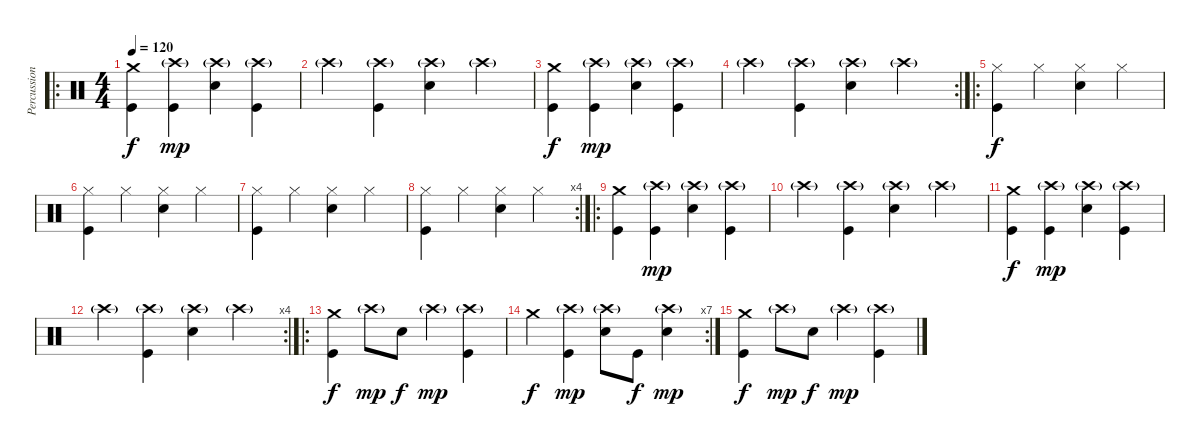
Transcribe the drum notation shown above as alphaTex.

\track ("Percussion" "Percussion") {instrument percussion}
\staff {score}
\articulation defaults
\ro
\ts (4 4)
\tempo 120
\clef neutral
\ks c
("Crash medium (hit)" "Kick (hit)").4{dy f} ("Crash high (hit)"{g} "Kick (hit)").4{dy mp} ("Crash high (hit)"{g} "Snare (hit) 2").4 ("Crash high (hit)"{g} "Kick (hit)").4 |
"Crash high (hit)"{g}.4 ("Crash high (hit)"{g} "Kick (hit)").4 ("Crash high (hit)"{g} "Snare (hit) 2").4 "Crash high (hit)"{g}.4 |
("Crash medium (hit)" "Kick (hit)").4{dy f} ("Crash high (hit)"{g} "Kick (hit)").4{dy mp} ("Crash high (hit)"{g} "Snare (hit) 2").4 ("Crash high (hit)"{g} "Kick (hit)").4 |
\rc 2 "Crash high (hit)"{g}.4
("Crash high (hit)"{g} "Kick (hit)").4 ("Crash high (hit)"{g} "Snare (hit) 2").4 "Crash high (hit)"{g}.4 |
\ro
("Hi-Hat (closed)" "Kick (hit)").4{dy f} "Hi-Hat (closed)".4 ("Hi-Hat (closed)" "Snare (hit) 2").4 "Hi-Hat (closed)".4 |
("Hi-Hat (closed)" "Kick (hit)").4 "Hi-Hat (closed)".4 ("Hi-Hat (closed)" "Snare (hit) 2").4 "Hi-Hat (closed)".4 |
("Hi-Hat (closed)" "Kick (hit)").4 "Hi-Hat (closed)".4 ("Hi-Hat (closed)" "Snare (hit) 2").4 "Hi-Hat (closed)".4 |
\rc 4
("Hi-Hat (closed)" "Kick (hit)").4 "Hi-Hat (closed)".4 ("Hi-Hat (closed)" "Snare (hit) 2").4 "Hi-Hat (closed)".4 |
\ro
("Crash medium (hit)" "Kick (hit)").4 ("Crash high (hit)"{g} "Kick (hit)").4{dy mp} ("Crash high (hit)"{g} "Snare (hit) 2").4 ("Crash high (hit)"{g} "Kick (hit)").4 |
"Crash high (hit)"{g}.4 ("Crash high (hit)"{g} "Kick (hit)").4 ("Crash high (hit)"{g} "Snare (hit) 2").4 "Crash high (hit)"{g}.4 |
("Crash medium (hit)" "Kick (hit)").4{dy f} ("Crash high (hit)"{g} "Kick (hit)").4{dy mp} ("Crash high (hit)"{g} "Snare (hit) 2").4 ("Crash high (hit)"{g} "Kick (hit)").4 |
\rc 4 "Crash high (hit)"{g}.4
("Crash high (hit)"{g} "Kick (hit)").4 ("Crash high (hit)"{g} "Snare (hit) 2").4 "Crash high (hit)"{g}.4 |
\ro
("Crash medium (hit)" "Kick (hit)").4{dy f} "Crash high (hit)"{g}.8{dy mp} "Snare (hit) 2".8{dy f} "Crash high (hit)"{g}.4{dy mp} ("Crash high (hit)"{g} "Kick (hit)").4 |
\rc 7 "Crash medium (hit)".4{dy f}
("Crash high (hit)"{g} "Kick (hit)").4{dy mp} ("Crash high (hit)"{g} "Snare (hit) 2").8 "Kick (hit)".8{dy f} ("Crash high (hit)"{g} "Snare (hit) 2").4{dy mp} |
("Crash medium (hit)" "Kick (hit)").4{dy f} "Crash high (hit)"{g}.8{dy mp} "Snare (hit) 2".8{dy f} "Crash high (hit)"{g}.4{dy mp} ("Crash high (hit)"{g} "Kick (hit)").4
